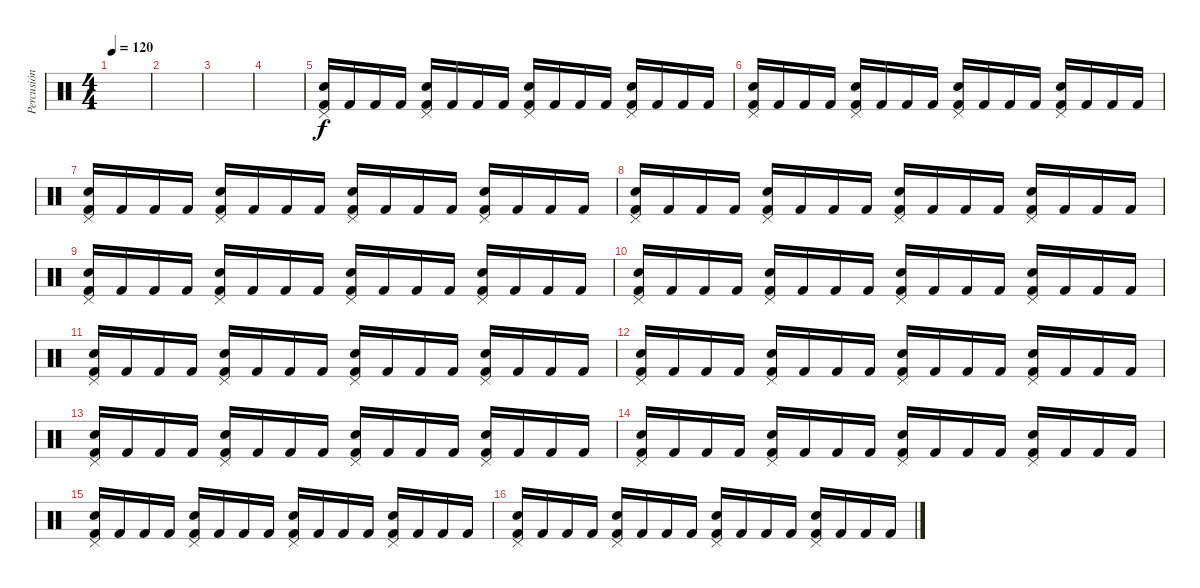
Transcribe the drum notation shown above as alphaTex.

\track ("Percusión" "Percusión") {instrument percussion}
\staff {score}
\articulation defaults
\ts (4 4)
\tempo 120
\clef neutral
\ks c
|
|
|
|
("Snare (hit) 2" "Pedal Hi-Hat (hit)" "Kick (hit) 2").16 "Kick (hit) 2".16 "Kick (hit) 2".16 "Kick (hit) 2".16 ("Snare (hit) 2" "Pedal Hi-Hat (hit)" "Kick (hit) 2").16 "Kick (hit) 2".16 "Kick (hit) 2".16 "Kick (hit) 2".16 ("Snare (hit) 2" "Pedal Hi-Hat (hit)" "Kick (hit) 2").16 "Kick (hit) 2".16 "Kick (hit) 2".16 "Kick (hit) 2".16 ("Snare (hit) 2" "Pedal Hi-Hat (hit)" "Kick (hit) 2").16 "Kick (hit) 2".16 "Kick (hit) 2".16 "Kick (hit) 2".16 |
("Snare (hit) 2" "Pedal Hi-Hat (hit)" "Kick (hit) 2").16 "Kick (hit) 2".16 "Kick (hit) 2".16 "Kick (hit) 2".16 ("Snare (hit) 2" "Pedal Hi-Hat (hit)" "Kick (hit) 2").16 "Kick (hit) 2".16 "Kick (hit) 2".16 "Kick (hit) 2".16 ("Snare (hit) 2" "Pedal Hi-Hat (hit)" "Kick (hit) 2").16 "Kick (hit) 2".16 "Kick (hit) 2".16 "Kick (hit) 2".16 ("Snare (hit) 2" "Pedal Hi-Hat (hit)" "Kick (hit) 2").16 "Kick (hit) 2".16 "Kick (hit) 2".16 "Kick (hit) 2".16 |
("Snare (hit) 2" "Pedal Hi-Hat (hit)" "Kick (hit) 2").16 "Kick (hit) 2".16 "Kick (hit) 2".16 "Kick (hit) 2".16 ("Snare (hit) 2" "Pedal Hi-Hat (hit)" "Kick (hit) 2").16 "Kick (hit) 2".16 "Kick (hit) 2".16 "Kick (hit) 2".16 ("Snare (hit) 2" "Pedal Hi-Hat (hit)" "Kick (hit) 2").16 "Kick (hit) 2".16 "Kick (hit) 2".16 "Kick (hit) 2".16 ("Snare (hit) 2" "Pedal Hi-Hat (hit)" "Kick (hit) 2").16 "Kick (hit) 2".16 "Kick (hit) 2".16 "Kick (hit) 2".16 |
("Snare (hit) 2" "Pedal Hi-Hat (hit)" "Kick (hit) 2").16 "Kick (hit) 2".16 "Kick (hit) 2".16 "Kick (hit) 2".16 ("Snare (hit) 2" "Pedal Hi-Hat (hit)" "Kick (hit) 2").16 "Kick (hit) 2".16 "Kick (hit) 2".16 "Kick (hit) 2".16 ("Snare (hit) 2" "Pedal Hi-Hat (hit)" "Kick (hit) 2").16 "Kick (hit) 2".16 "Kick (hit) 2".16 "Kick (hit) 2".16 ("Snare (hit) 2" "Pedal Hi-Hat (hit)" "Kick (hit) 2").16 "Kick (hit) 2".16 "Kick (hit) 2".16 "Kick (hit) 2".16 |
("Snare (hit) 2" "Pedal Hi-Hat (hit)" "Kick (hit) 2").16 "Kick (hit) 2".16 "Kick (hit) 2".16 "Kick (hit) 2".16 ("Snare (hit) 2" "Pedal Hi-Hat (hit)" "Kick (hit) 2").16 "Kick (hit) 2".16 "Kick (hit) 2".16 "Kick (hit) 2".16 ("Snare (hit) 2" "Pedal Hi-Hat (hit)" "Kick (hit) 2").16 "Kick (hit) 2".16 "Kick (hit) 2".16 "Kick (hit) 2".16 ("Snare (hit) 2" "Pedal Hi-Hat (hit)" "Kick (hit) 2").16 "Kick (hit) 2".16 "Kick (hit) 2".16 "Kick (hit) 2".16 |
("Snare (hit) 2" "Pedal Hi-Hat (hit)" "Kick (hit) 2").16 "Kick (hit) 2".16 "Kick (hit) 2".16 "Kick (hit) 2".16 ("Snare (hit) 2" "Pedal Hi-Hat (hit)" "Kick (hit) 2").16 "Kick (hit) 2".16 "Kick (hit) 2".16 "Kick (hit) 2".16 ("Snare (hit) 2" "Pedal Hi-Hat (hit)" "Kick (hit) 2").16 "Kick (hit) 2".16 "Kick (hit) 2".16 "Kick (hit) 2".16 ("Snare (hit) 2" "Pedal Hi-Hat (hit)" "Kick (hit) 2").16 "Kick (hit) 2".16 "Kick (hit) 2".16 "Kick (hit) 2".16 |
("Snare (hit) 2" "Pedal Hi-Hat (hit)" "Kick (hit) 2").16 "Kick (hit) 2".16 "Kick (hit) 2".16 "Kick (hit) 2".16 ("Snare (hit) 2" "Pedal Hi-Hat (hit)" "Kick (hit) 2").16 "Kick (hit) 2".16 "Kick (hit) 2".16 "Kick (hit) 2".16 ("Snare (hit) 2" "Pedal Hi-Hat (hit)" "Kick (hit) 2").16 "Kick (hit) 2".16 "Kick (hit) 2".16 "Kick (hit) 2".16 ("Snare (hit) 2" "Pedal Hi-Hat (hit)" "Kick (hit) 2").16 "Kick (hit) 2".16 "Kick (hit) 2".16 "Kick (hit) 2".16 |
("Snare (hit) 2" "Pedal Hi-Hat (hit)" "Kick (hit) 2").16 "Kick (hit) 2".16 "Kick (hit) 2".16 "Kick (hit) 2".16 ("Snare (hit) 2" "Pedal Hi-Hat (hit)" "Kick (hit) 2").16 "Kick (hit) 2".16 "Kick (hit) 2".16 "Kick (hit) 2".16 ("Snare (hit) 2" "Pedal Hi-Hat (hit)" "Kick (hit) 2").16 "Kick (hit) 2".16 "Kick (hit) 2".16 "Kick (hit) 2".16 ("Snare (hit) 2" "Pedal Hi-Hat (hit)" "Kick (hit) 2").16 "Kick (hit) 2".16 "Kick (hit) 2".16 "Kick (hit) 2".16 |
("Snare (hit) 2" "Pedal Hi-Hat (hit)" "Kick (hit) 2").16 "Kick (hit) 2".16 "Kick (hit) 2".16 "Kick (hit) 2".16 ("Snare (hit) 2" "Pedal Hi-Hat (hit)" "Kick (hit) 2").16 "Kick (hit) 2".16 "Kick (hit) 2".16 "Kick (hit) 2".16 ("Snare (hit) 2" "Pedal Hi-Hat (hit)" "Kick (hit) 2").16 "Kick (hit) 2".16 "Kick (hit) 2".16 "Kick (hit) 2".16 ("Snare (hit) 2" "Pedal Hi-Hat (hit)" "Kick (hit) 2").16 "Kick (hit) 2".16 "Kick (hit) 2".16 "Kick (hit) 2".16 |
("Snare (hit) 2" "Pedal Hi-Hat (hit)" "Kick (hit) 2").16 "Kick (hit) 2".16 "Kick (hit) 2".16 "Kick (hit) 2".16 ("Snare (hit) 2" "Pedal Hi-Hat (hit)" "Kick (hit) 2").16 "Kick (hit) 2".16 "Kick (hit) 2".16 "Kick (hit) 2".16 ("Snare (hit) 2" "Pedal Hi-Hat (hit)" "Kick (hit) 2").16 "Kick (hit) 2".16 "Kick (hit) 2".16 "Kick (hit) 2".16 ("Snare (hit) 2" "Pedal Hi-Hat (hit)" "Kick (hit) 2").16 "Kick (hit) 2".16 "Kick (hit) 2".16 "Kick (hit) 2".16 |
("Snare (hit) 2" "Pedal Hi-Hat (hit)" "Kick (hit) 2").16 "Kick (hit) 2".16 "Kick (hit) 2".16 "Kick (hit) 2".16 ("Snare (hit) 2" "Pedal Hi-Hat (hit)" "Kick (hit) 2").16 "Kick (hit) 2".16 "Kick (hit) 2".16 "Kick (hit) 2".16 ("Snare (hit) 2" "Pedal Hi-Hat (hit)" "Kick (hit) 2").16 "Kick (hit) 2".16 "Kick (hit) 2".16 "Kick (hit) 2".16 ("Snare (hit) 2" "Pedal Hi-Hat (hit)" "Kick (hit) 2").16 "Kick (hit) 2".16 "Kick (hit) 2".16 "Kick (hit) 2".16 |
("Snare (hit) 2" "Pedal Hi-Hat (hit)" "Kick (hit) 2").16 "Kick (hit) 2".16 "Kick (hit) 2".16 "Kick (hit) 2".16 ("Snare (hit) 2" "Pedal Hi-Hat (hit)" "Kick (hit) 2").16 "Kick (hit) 2".16 "Kick (hit) 2".16 "Kick (hit) 2".16 ("Snare (hit) 2" "Pedal Hi-Hat (hit)" "Kick (hit) 2").16 "Kick (hit) 2".16 "Kick (hit) 2".16 "Kick (hit) 2".16 ("Snare (hit) 2" "Pedal Hi-Hat (hit)" "Kick (hit) 2").16 "Kick (hit) 2".16 "Kick (hit) 2".16 "Kick (hit) 2".16
